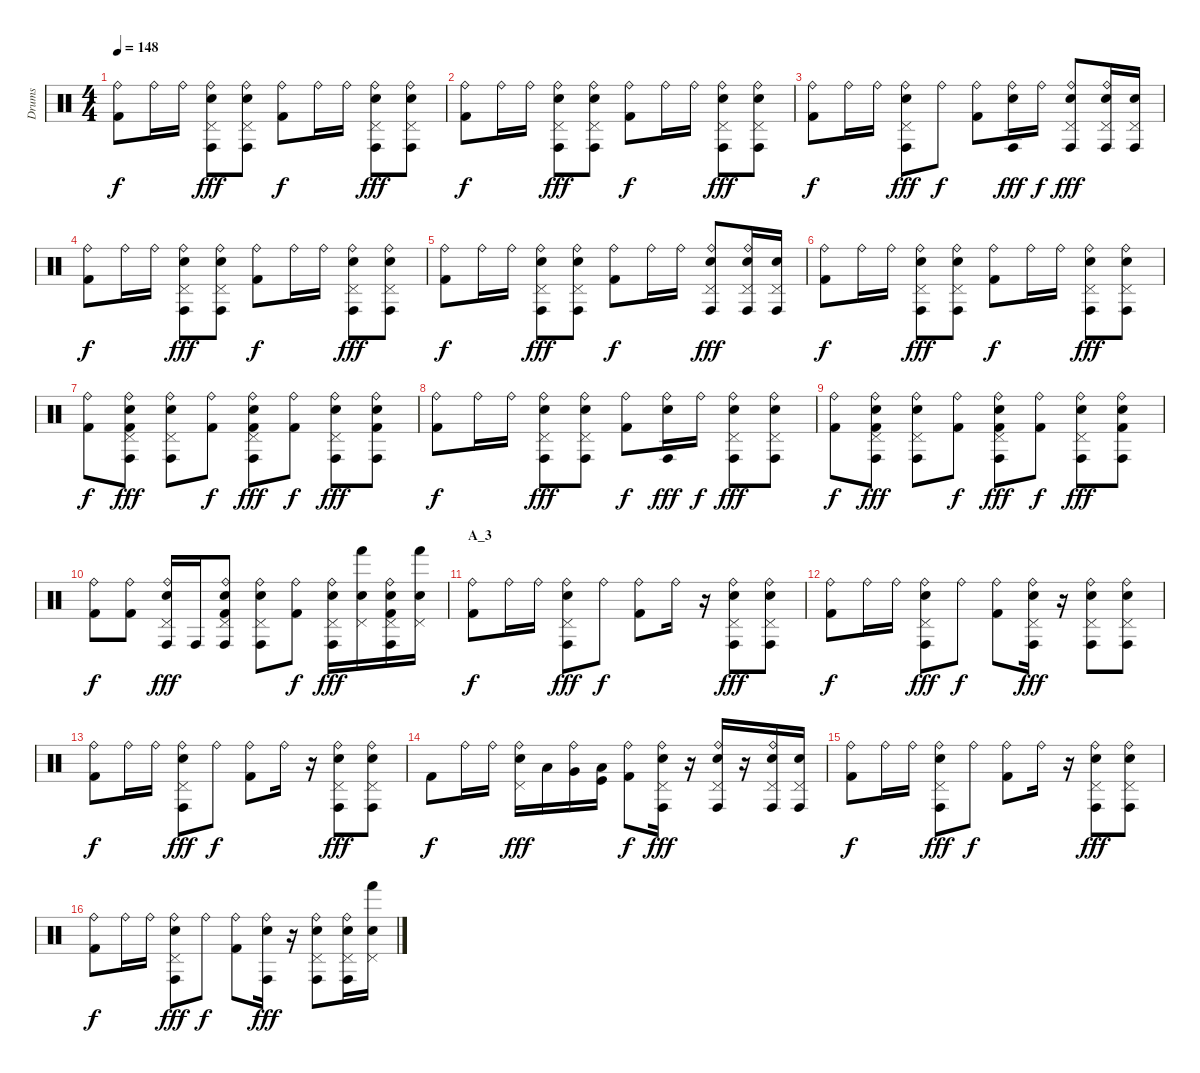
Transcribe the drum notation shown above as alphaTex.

\track ("Drums" "Drums") {instrument percussion}
\staff {score}
\articulation defaults
\ts (4 4)
\tempo 148
\clef neutral
\ks c
("Ride (bell)" "Kick (hit) 2").8{dy f} "Ride (bell)".16 "Ride (bell)".16 ("Ride (bell)" "Pedal Hi-Hat (hit)" "Conga high (hit)" "Electric Snare (hit)").8{dy fff} ("Ride (bell)" "Pedal Hi-Hat (hit)" "Conga high (hit)" "Electric Snare (hit)").8 ("Ride (bell)" "Kick (hit) 2").8{dy f} "Ride (bell)".16 "Ride (bell)".16 ("Ride (bell)" "Pedal Hi-Hat (hit)" "Conga high (hit)" "Electric Snare (hit)").8{dy fff} ("Ride (bell)" "Pedal Hi-Hat (hit)" "Conga high (hit)" "Electric Snare (hit)").8 |
("Ride (bell)" "Kick (hit) 2").8{dy f} "Ride (bell)".16 "Ride (bell)".16 ("Ride (bell)" "Pedal Hi-Hat (hit)" "Conga high (hit)" "Electric Snare (hit)").8{dy fff} ("Ride (bell)" "Pedal Hi-Hat (hit)" "Conga high (hit)" "Electric Snare (hit)").8 ("Ride (bell)" "Kick (hit) 2").8{dy f} "Ride (bell)".16 "Ride (bell)".16 ("Ride (bell)" "Pedal Hi-Hat (hit)" "Conga high (hit)" "Electric Snare (hit)").8{dy fff} ("Ride (bell)" "Pedal Hi-Hat (hit)" "Conga high (hit)" "Electric Snare (hit)").8 |
("Ride (bell)" "Kick (hit) 2").8{dy f} "Ride (bell)".16 "Ride (bell)".16 ("Ride (bell)" "Pedal Hi-Hat (hit)" "Conga high (hit)" "Electric Snare (hit)").8{dy fff} "Ride (bell)".8{dy f} ("Ride (bell)" "Kick (hit) 2").8 ("Ride (bell)" "Conga high (hit)" "Electric Snare (hit)").16{dy fff} "Ride (bell)".16{dy f} ("Ride (bell)" "Pedal Hi-Hat (hit)" "Conga high (hit)" "Electric Snare (hit)").8{dy fff} ("Ride (bell)" "Pedal Hi-Hat (hit)" "Conga high (hit)" "Electric Snare (hit)").16 ("Pedal Hi-Hat (hit)" "Conga high (hit)" "Electric Snare (hit)").16 |
("Ride (bell)" "Kick (hit) 2").8{dy f} "Ride (bell)".16 "Ride (bell)".16 ("Ride (bell)" "Pedal Hi-Hat (hit)" "Conga high (hit)" "Electric Snare (hit)").8{dy fff} ("Ride (bell)" "Pedal Hi-Hat (hit)" "Conga high (hit)" "Electric Snare (hit)").8 ("Ride (bell)" "Kick (hit) 2").8{dy f} "Ride (bell)".16 "Ride (bell)".16 ("Ride (bell)" "Pedal Hi-Hat (hit)" "Conga high (hit)" "Electric Snare (hit)").8{dy fff} ("Ride (bell)" "Pedal Hi-Hat (hit)" "Conga high (hit)" "Electric Snare (hit)").8 |
("Ride (bell)" "Kick (hit) 2").8{dy f} "Ride (bell)".16 "Ride (bell)".16 ("Ride (bell)" "Pedal Hi-Hat (hit)" "Conga high (hit)" "Electric Snare (hit)").8{dy fff} ("Ride (bell)" "Pedal Hi-Hat (hit)" "Conga high (hit)" "Electric Snare (hit)").8 ("Ride (bell)" "Kick (hit) 2").8{dy f} "Ride (bell)".16 "Ride (bell)".16 ("Ride (bell)" "Pedal Hi-Hat (hit)" "Conga high (hit)" "Electric Snare (hit)").8{dy fff} ("Ride (bell)" "Pedal Hi-Hat (hit)" "Conga high (hit)" "Electric Snare (hit)").16 ("Pedal Hi-Hat (hit)" "Conga high (hit)" "Electric Snare (hit)").16 |
("Ride (bell)" "Kick (hit) 2").8{dy f} "Ride (bell)".16 "Ride (bell)".16 ("Ride (bell)" "Pedal Hi-Hat (hit)" "Conga high (hit)" "Electric Snare (hit)").8{dy fff} ("Ride (bell)" "Pedal Hi-Hat (hit)" "Conga high (hit)" "Electric Snare (hit)").8 ("Ride (bell)" "Kick (hit) 2").8{dy f} "Ride (bell)".16 "Ride (bell)".16 ("Ride (bell)" "Pedal Hi-Hat (hit)" "Conga high (hit)" "Electric Snare (hit)").8{dy fff} ("Ride (bell)" "Pedal Hi-Hat (hit)" "Conga high (hit)" "Electric Snare (hit)").8 |
("Ride (bell)" "Kick (hit) 2").8{dy f} ("Ride (bell)" "Pedal Hi-Hat (hit)" "Conga high (hit)" "Electric Snare (hit)" "Kick (hit) 2").8{dy fff} ("Ride (bell)" "Pedal Hi-Hat (hit)" "Conga high (hit)" "Electric Snare (hit)").8 ("Ride (bell)" "Kick (hit) 2").8{dy f} ("Ride (bell)" "Pedal Hi-Hat (hit)" "Conga high (hit)" "Electric Snare (hit)" "Kick (hit) 2").8{dy fff} ("Ride (bell)" "Kick (hit) 2").8{dy f} ("Ride (bell)" "Pedal Hi-Hat (hit)" "Conga high (hit)" "Electric Snare (hit)").8{dy fff} ("Ride (bell)" "Conga high (hit)" "Electric Snare (hit)" "Kick (hit) 2").8 |
("Ride (bell)" "Kick (hit) 2").8{dy f} "Ride (bell)".16 "Ride (bell)".16 ("Ride (bell)" "Pedal Hi-Hat (hit)" "Conga high (hit)" "Electric Snare (hit)").8{dy fff} ("Ride (bell)" "Pedal Hi-Hat (hit)" "Conga high (hit)" "Electric Snare (hit)").8 ("Ride (bell)" "Kick (hit) 2").8{dy f} ("Ride (bell)" "Conga high (hit)" "Electric Snare (hit)").16{dy fff} "Ride (bell)".16{dy f} ("Ride (bell)" "Pedal Hi-Hat (hit)" "Conga high (hit)" "Electric Snare (hit)").8{dy fff} ("Ride (bell)" "Pedal Hi-Hat (hit)" "Conga high (hit)" "Electric Snare (hit)").8 |
("Ride (bell)" "Kick (hit) 2").8{dy f} ("Ride (bell)" "Pedal Hi-Hat (hit)" "Conga high (hit)" "Electric Snare (hit)" "Kick (hit) 2").8{dy fff} ("Ride (bell)" "Pedal Hi-Hat (hit)" "Conga high (hit)" "Electric Snare (hit)").8 ("Ride (bell)" "Kick (hit) 2").8{dy f} ("Ride (bell)" "Pedal Hi-Hat (hit)" "Conga high (hit)" "Electric Snare (hit)" "Kick (hit) 2").8{dy fff} ("Ride (bell)" "Kick (hit) 2").8{dy f} ("Ride (bell)" "Pedal Hi-Hat (hit)" "Conga high (hit)" "Electric Snare (hit)").8{dy fff} ("Ride (bell)" "Conga high (hit)" "Electric Snare (hit)" "Kick (hit) 2").8 |
("Ride (bell)" "Kick (hit) 2").8{dy f} ("Ride (bell)" "Kick (hit) 2").8 ("Ride (bell)" "Pedal Hi-Hat (hit)" "Conga high (hit)" "Electric Snare (hit)").16{dy fff} "Conga high (hit)".16 ("Ride (bell)" "Pedal Hi-Hat (hit)" "Conga high (hit)" "Electric Snare (hit)" "Kick (hit) 2").8 ("Ride (bell)" "Pedal Hi-Hat (hit)" "Conga high (hit)" "Electric Snare (hit)").8 ("Ride (bell)" "Kick (hit) 2").8{dy f} ("Ride (bell)" "Pedal Hi-Hat (hit)" "Conga high (hit)" "Electric Snare (hit)").16{dy fff} ("Pedal Hi-Hat (hit)" "Hand (hit)" "Electric Snare (hit)").16 ("Ride (bell)" "Pedal Hi-Hat (hit)" "Conga high (hit)" "Electric Snare (hit)" "Kick (hit) 2").16 ("Pedal Hi-Hat (hit)" "Hand (hit)" "Electric Snare (hit)").16 |
\section ("" "A_3")
("Ride (bell)" "Kick (hit) 2").8{dy f} "Ride (bell)".16 "Ride (bell)".16 ("Ride (bell)" "Pedal Hi-Hat (hit)" "Conga high (hit)" "Electric Snare (hit)").8{dy fff} "Ride (bell)".8{dy f} ("Ride (bell)" "Kick (hit) 2").8 "Ride (bell)".16 r.16 ("Ride (bell)" "Pedal Hi-Hat (hit)" "Conga high (hit)" "Electric Snare (hit)").8{dy fff} ("Ride (bell)" "Pedal Hi-Hat (hit)" "Conga high (hit)" "Electric Snare (hit)").8 |
("Ride (bell)" "Kick (hit) 2").8{dy f} "Ride (bell)".16 "Ride (bell)".16 ("Ride (bell)" "Pedal Hi-Hat (hit)" "Conga high (hit)" "Electric Snare (hit)").8{dy fff} "Ride (bell)".8{dy f} ("Ride (bell)" "Kick (hit) 2").8 ("Ride (bell)" "Pedal Hi-Hat (hit)" "Conga high (hit)" "Electric Snare (hit)").16{dy fff} r.16 ("Ride (bell)" "Pedal Hi-Hat (hit)" "Conga high (hit)" "Electric Snare (hit)").8 ("Ride (bell)" "Pedal Hi-Hat (hit)" "Conga high (hit)" "Electric Snare (hit)").8 |
("Ride (bell)" "Kick (hit) 2").8{dy f} "Ride (bell)".16 "Ride (bell)".16 ("Ride (bell)" "Pedal Hi-Hat (hit)" "Conga high (hit)" "Electric Snare (hit)").8{dy fff} "Ride (bell)".8{dy f} ("Ride (bell)" "Kick (hit) 2").8 "Ride (bell)".16 r.16 ("Ride (bell)" "Pedal Hi-Hat (hit)" "Conga high (hit)" "Electric Snare (hit)").8{dy fff} ("Ride (bell)" "Pedal Hi-Hat (hit)" "Conga high (hit)" "Electric Snare (hit)").8 |
"Kick (hit) 2".8{dy f} "Ride (bell)".16 "Ride (bell)".16 ("Ride (bell)" "Pedal Hi-Hat (hit)" "Electric Snare (hit)").16{dy fff} "Low Tom (hit)".16 ("Ride (bell)" "Very Low Tom (hit)").16 ("Low Floor Tom (hit)" "Kick (hit)").16 ("Ride (bell)" "Kick (hit) 2").8{dy f} ("Ride (bell)" "Pedal Hi-Hat (hit)" "Conga high (hit)" "Electric Snare (hit)").16{dy fff} r.16 ("Ride (bell)" "Pedal Hi-Hat (hit)" "Conga high (hit)" "Electric Snare (hit)").16 r.16 ("Ride (bell)" "Pedal Hi-Hat (hit)" "Conga high (hit)" "Electric Snare (hit)").16 ("Pedal Hi-Hat (hit)" "Conga high (hit)" "Electric Snare (hit)").16 |
("Ride (bell)" "Kick (hit) 2").8{dy f} "Ride (bell)".16 "Ride (bell)".16 ("Ride (bell)" "Pedal Hi-Hat (hit)" "Conga high (hit)" "Electric Snare (hit)").8{dy fff} "Ride (bell)".8{dy f} ("Ride (bell)" "Kick (hit) 2").8 "Ride (bell)".16 r.16 ("Ride (bell)" "Pedal Hi-Hat (hit)" "Conga high (hit)" "Electric Snare (hit)").8{dy fff} ("Ride (bell)" "Pedal Hi-Hat (hit)" "Conga high (hit)" "Electric Snare (hit)").8 |
("Ride (bell)" "Kick (hit) 2").8{dy f} "Ride (bell)".16 "Ride (bell)".16 ("Ride (bell)" "Pedal Hi-Hat (hit)" "Conga high (hit)" "Electric Snare (hit)").8{dy fff} "Ride (bell)".8{dy f} ("Ride (bell)" "Kick (hit) 2").8 ("Ride (bell)" "Conga high (hit)" "Electric Snare (hit)").16{dy fff} r.16 ("Ride (bell)" "Pedal Hi-Hat (hit)" "Conga high (hit)" "Electric Snare (hit)").8 ("Ride (bell)" "Pedal Hi-Hat (hit)" "Conga high (hit)" "Electric Snare (hit)").16 ("Pedal Hi-Hat (hit)" "Hand (hit)" "Electric Snare (hit)").16
